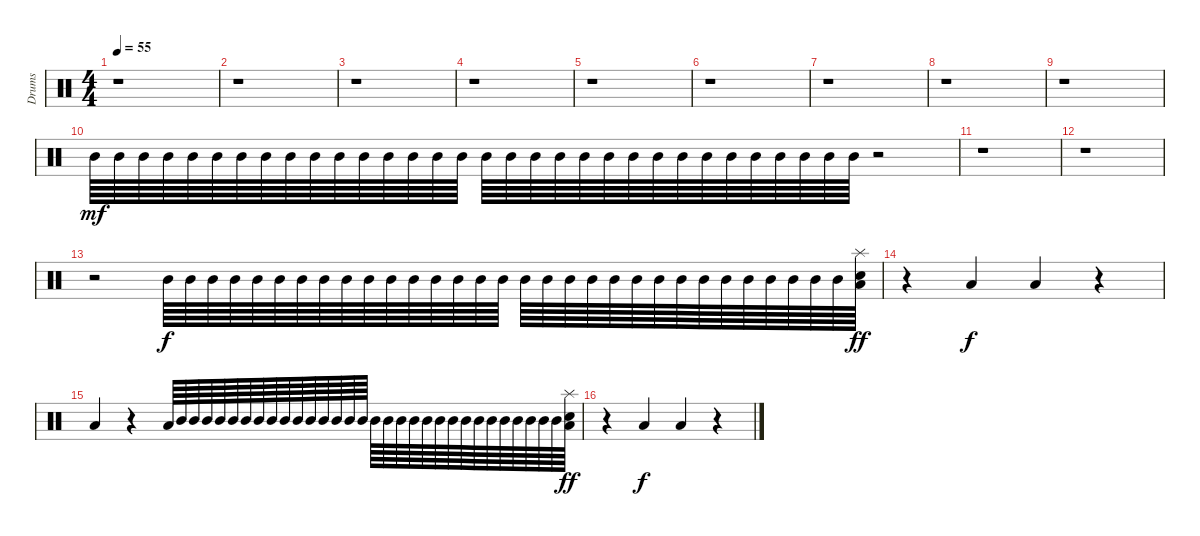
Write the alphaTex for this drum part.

\track ("Drums" "Drums") {instrument percussion}
\staff {score}
\articulation defaults
\ts (4 4)
\tempo 55
\clef neutral
\ks c
r.1{dy f} |
r.1 |
r.1 |
r.1 |
r.1 |
r.1 |
r.1 |
r.1 |
r.1 |
"Mid Tom (hit)".64{dy mf} "Mid Tom (hit)".64 "Mid Tom (hit)".64 "Mid Tom (hit)".64 "Mid Tom (hit)".64 "Mid Tom (hit)".64 "Mid Tom (hit)".64 "Mid Tom (hit)".64 "Mid Tom (hit)".64 "Mid Tom (hit)".64 "Mid Tom (hit)".64 "Mid Tom (hit)".64 "Mid Tom (hit)".64 "Mid Tom (hit)".64 "Mid Tom (hit)".64 "Mid Tom (hit)".64 "Mid Tom (hit)".64 "Mid Tom (hit)".64 "Mid Tom (hit)".64 "Mid Tom (hit)".64 "Mid Tom (hit)".64 "Mid Tom (hit)".64 "Mid Tom (hit)".64 "Mid Tom (hit)".64 "Mid Tom (hit)".64 "Mid Tom (hit)".64 "Mid Tom (hit)".64 "Mid Tom (hit)".64 "Mid Tom (hit)".64 "Mid Tom (hit)".64 "Mid Tom (hit)".64 "Mid Tom (hit)".64 r.2 |
r.1 |
r.1 |
r.2{volume 10} "Mid Tom (hit)".64{dy f volume 16} "Mid Tom (hit)".64 "Mid Tom (hit)".64 "Mid Tom (hit)".64 "Mid Tom (hit)".64 "Mid Tom (hit)".64 "Mid Tom (hit)".64 "Mid Tom (hit)".64 "Mid Tom (hit)".64 "Mid Tom (hit)".64 "Mid Tom (hit)".64 "Mid Tom (hit)".64 "Mid Tom (hit)".64 "Mid Tom (hit)".64 "Mid Tom (hit)".64 "Mid Tom (hit)".64 "Mid Tom (hit)".64 "Mid Tom (hit)".64 "Mid Tom (hit)".64 "Mid Tom (hit)".64 "Mid Tom (hit)".64 "Mid Tom (hit)".64 "Mid Tom (hit)".64 "Mid Tom (hit)".64 "Mid Tom (hit)".64 "Mid Tom (hit)".64 "Mid Tom (hit)".64 "Mid Tom (hit)".64 "Mid Tom (hit)".64 "Mid Tom (hit)".64 "Mid Tom (hit)".64 ("Splash (hit)" "Snare (hit) 2" "Low Tom (hit)").64{dy ff} |
r.4 "Low Tom (hit)".4{dy f} "Low Tom (hit)".4 r.4 |
"Low Tom (hit)".4 r.4 "Low Tom (hit)".64 "Mid Tom (hit)".64{volume 10} "Mid Tom (hit)".64{volume 16} "Mid Tom (hit)".64 "Mid Tom (hit)".64 "Mid Tom (hit)".64 "Mid Tom (hit)".64 "Mid Tom (hit)".64 "Mid Tom (hit)".64 "Mid Tom (hit)".64 "Mid Tom (hit)".64 "Mid Tom (hit)".64 "Mid Tom (hit)".64 "Mid Tom (hit)".64 "Mid Tom (hit)".64 "Mid Tom (hit)".64 "Mid Tom (hit)".64 "Mid Tom (hit)".64 "Mid Tom (hit)".64 "Mid Tom (hit)".64 "Mid Tom (hit)".64 "Mid Tom (hit)".64 "Mid Tom (hit)".64 "Mid Tom (hit)".64 "Mid Tom (hit)".64 "Mid Tom (hit)".64 "Mid Tom (hit)".64 "Mid Tom (hit)".64 "Mid Tom (hit)".64 "Mid Tom (hit)".64 "Mid Tom (hit)".64 ("Splash (hit)" "Snare (hit) 2" "Low Tom (hit)").64{dy ff} |
r.4 "Low Tom (hit)".4{dy f} "Low Tom (hit)".4 r.4
